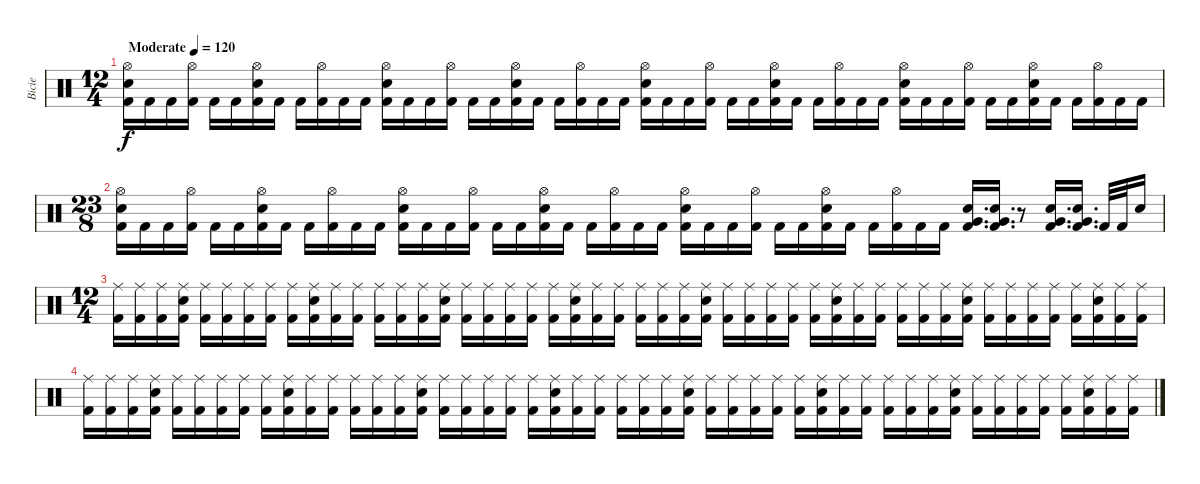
\track ("Bicie" "Bicie") {instrument percussion}
\staff {score}
\articulation defaults
\ts (12 4)
\tempo (120 "Moderate")
\clef neutral
\ks c
("Hi-Hat (open)" "Electric Snare (hit)" "Kick (hit) 2").16{dy f} "Kick (hit) 2".16 "Kick (hit) 2".16 ("Hi-Hat (open)" "Kick (hit) 2").16 "Kick (hit) 2".16 "Kick (hit) 2".16 ("Hi-Hat (open)" "Electric Snare (hit)" "Kick (hit) 2").16 "Kick (hit) 2".16 "Kick (hit) 2".16 ("Hi-Hat (open)" "Kick (hit) 2").16 "Kick (hit) 2".16 "Kick (hit) 2".16 ("Hi-Hat (open)" "Electric Snare (hit)" "Kick (hit) 2").16 "Kick (hit) 2".16 "Kick (hit) 2".16 ("Hi-Hat (open)" "Kick (hit) 2").16 "Kick (hit) 2".16 "Kick (hit) 2".16 ("Hi-Hat (open)" "Electric Snare (hit)" "Kick (hit) 2").16 "Kick (hit) 2".16 "Kick (hit) 2".16 ("Hi-Hat (open)" "Kick (hit) 2").16 "Kick (hit) 2".16 "Kick (hit) 2".16 ("Hi-Hat (open)" "Electric Snare (hit)" "Kick (hit) 2").16 "Kick (hit) 2".16 "Kick (hit) 2".16 ("Hi-Hat (open)" "Kick (hit) 2").16 "Kick (hit) 2".16 "Kick (hit) 2".16 ("Hi-Hat (open)" "Electric Snare (hit)" "Kick (hit) 2").16 "Kick (hit) 2".16 "Kick (hit) 2".16 ("Hi-Hat (open)" "Kick (hit) 2").16 "Kick (hit) 2".16 "Kick (hit) 2".16 ("Hi-Hat (open)" "Electric Snare (hit)" "Kick (hit) 2").16 "Kick (hit) 2".16 "Kick (hit) 2".16 ("Hi-Hat (open)" "Kick (hit) 2").16 "Kick (hit) 2".16 "Kick (hit) 2".16 ("Hi-Hat (open)" "Electric Snare (hit)" "Kick (hit) 2").16 "Kick (hit) 2".16 "Kick (hit) 2".16 ("Hi-Hat (open)" "Kick (hit) 2").16 "Kick (hit) 2".16 "Kick (hit) 2".16 |
\ts (23 8)
("Hi-Hat (open)" "Electric Snare (hit)" "Kick (hit) 2").16 "Kick (hit) 2".16 "Kick (hit) 2".16 ("Hi-Hat (open)" "Kick (hit) 2").16 "Kick (hit) 2".16 "Kick (hit) 2".16 ("Hi-Hat (open)" "Electric Snare (hit)" "Kick (hit) 2").16 "Kick (hit) 2".16 "Kick (hit) 2".16 ("Hi-Hat (open)" "Kick (hit) 2").16 "Kick (hit) 2".16 "Kick (hit) 2".16 ("Hi-Hat (open)" "Electric Snare (hit)" "Kick (hit) 2").16 "Kick (hit) 2".16 "Kick (hit) 2".16 ("Hi-Hat (open)" "Kick (hit) 2").16 "Kick (hit) 2".16 "Kick (hit) 2".16 ("Hi-Hat (open)" "Electric Snare (hit)" "Kick (hit) 2").16 "Kick (hit) 2".16 "Kick (hit) 2".16 ("Hi-Hat (open)" "Kick (hit) 2").16 "Kick (hit) 2".16 "Kick (hit) 2".16 ("Hi-Hat (open)" "Electric Snare (hit)" "Kick (hit) 2").16 "Kick (hit) 2".16 "Kick (hit) 2".16 ("Hi-Hat (open)" "Kick (hit) 2").16 "Kick (hit) 2".16 "Kick (hit) 2".16 ("Hi-Hat (open)" "Electric Snare (hit)" "Kick (hit) 2").16 "Kick (hit) 2".16 "Kick (hit) 2".16 ("Hi-Hat (open)" "Kick (hit) 2").16 "Kick (hit) 2".16 "Kick (hit) 2".16 ("Electric Snare (hit)" "Very Low Tom (hit)" "Kick (hit) 2").16{d} ("Electric Snare (hit)" "Very Low Tom (hit)" "Kick (hit) 2").16{d} r.8 ("Electric Snare (hit)" "Very Low Tom (hit)" "Kick (hit) 2").16{d} ("Electric Snare (hit)" "Very Low Tom (hit)" "Kick (hit) 2").16{d} "Kick (hit) 2".32 "Kick (hit) 2".32 "Electric Snare (hit)".16 |
\ts (12 4)
("Ride (middle)" "Kick (hit) 2").16 ("Ride (middle)" "Kick (hit) 2").16 ("Ride (middle)" "Kick (hit) 2").16 ("Ride (middle)" "Electric Snare (hit)" "Kick (hit) 2").16 ("Ride (middle)" "Kick (hit) 2").16 ("Ride (middle)" "Kick (hit) 2").16 ("Ride (middle)" "Kick (hit) 2").16 ("Ride (middle)" "Kick (hit) 2").16 ("Ride (middle)" "Kick (hit) 2").16 ("Ride (middle)" "Electric Snare (hit)" "Kick (hit) 2").16 ("Ride (middle)" "Kick (hit) 2").16 ("Ride (middle)" "Kick (hit) 2").16 ("Ride (middle)" "Kick (hit) 2").16 ("Ride (middle)" "Kick (hit) 2").16 ("Ride (middle)" "Kick (hit) 2").16 ("Ride (middle)" "Electric Snare (hit)" "Kick (hit) 2").16 ("Ride (middle)" "Kick (hit) 2").16 ("Ride (middle)" "Kick (hit) 2").16 ("Ride (middle)" "Kick (hit) 2").16 ("Ride (middle)" "Kick (hit) 2").16 ("Ride (middle)" "Kick (hit) 2").16 ("Ride (middle)" "Electric Snare (hit)" "Kick (hit) 2").16 ("Ride (middle)" "Kick (hit) 2").16 ("Ride (middle)" "Kick (hit) 2").16 ("Ride (middle)" "Kick (hit) 2").16 ("Ride (middle)" "Kick (hit) 2").16 ("Ride (middle)" "Kick (hit) 2").16 ("Ride (middle)" "Electric Snare (hit)" "Kick (hit) 2").16 ("Ride (middle)" "Kick (hit) 2").16 ("Ride (middle)" "Kick (hit) 2").16 ("Ride (middle)" "Kick (hit) 2").16 ("Ride (middle)" "Kick (hit) 2").16 ("Ride (middle)" "Kick (hit) 2").16 ("Ride (middle)" "Electric Snare (hit)" "Kick (hit) 2").16 ("Ride (middle)" "Kick (hit) 2").16 ("Ride (middle)" "Kick (hit) 2").16 ("Ride (middle)" "Kick (hit) 2").16 ("Ride (middle)" "Kick (hit) 2").16 ("Ride (middle)" "Kick (hit) 2").16 ("Ride (middle)" "Electric Snare (hit)" "Kick (hit) 2").16 ("Ride (middle)" "Kick (hit) 2").16 ("Ride (middle)" "Kick (hit) 2").16 ("Ride (middle)" "Kick (hit) 2").16 ("Ride (middle)" "Kick (hit) 2").16 ("Ride (middle)" "Kick (hit) 2").16 ("Ride (middle)" "Electric Snare (hit)" "Kick (hit) 2").16 ("Ride (middle)" "Kick (hit) 2").16 ("Ride (middle)" "Kick (hit) 2").16 |
("Ride (middle)" "Kick (hit) 2").16 ("Ride (middle)" "Kick (hit) 2").16 ("Ride (middle)" "Kick (hit) 2").16 ("Ride (middle)" "Electric Snare (hit)" "Kick (hit) 2").16 ("Ride (middle)" "Kick (hit) 2").16 ("Ride (middle)" "Kick (hit) 2").16 ("Ride (middle)" "Kick (hit) 2").16 ("Ride (middle)" "Kick (hit) 2").16 ("Ride (middle)" "Kick (hit) 2").16 ("Ride (middle)" "Electric Snare (hit)" "Kick (hit) 2").16 ("Ride (middle)" "Kick (hit) 2").16 ("Ride (middle)" "Kick (hit) 2").16 ("Ride (middle)" "Kick (hit) 2").16 ("Ride (middle)" "Kick (hit) 2").16 ("Ride (middle)" "Kick (hit) 2").16 ("Ride (middle)" "Electric Snare (hit)" "Kick (hit) 2").16 ("Ride (middle)" "Kick (hit) 2").16 ("Ride (middle)" "Kick (hit) 2").16 ("Ride (middle)" "Kick (hit) 2").16 ("Ride (middle)" "Kick (hit) 2").16 ("Ride (middle)" "Kick (hit) 2").16 ("Ride (middle)" "Electric Snare (hit)" "Kick (hit) 2").16 ("Ride (middle)" "Kick (hit) 2").16 ("Ride (middle)" "Kick (hit) 2").16 ("Ride (middle)" "Kick (hit) 2").16 ("Ride (middle)" "Kick (hit) 2").16 ("Ride (middle)" "Kick (hit) 2").16 ("Ride (middle)" "Electric Snare (hit)" "Kick (hit) 2").16 ("Ride (middle)" "Kick (hit) 2").16 ("Ride (middle)" "Kick (hit) 2").16 ("Ride (middle)" "Kick (hit) 2").16 ("Ride (middle)" "Kick (hit) 2").16 ("Ride (middle)" "Kick (hit) 2").16 ("Ride (middle)" "Electric Snare (hit)" "Kick (hit) 2").16 ("Ride (middle)" "Kick (hit) 2").16 ("Ride (middle)" "Kick (hit) 2").16 ("Ride (middle)" "Kick (hit) 2").16 ("Ride (middle)" "Kick (hit) 2").16 ("Ride (middle)" "Kick (hit) 2").16 ("Ride (middle)" "Electric Snare (hit)" "Kick (hit) 2").16 ("Ride (middle)" "Kick (hit) 2").16 ("Ride (middle)" "Kick (hit) 2").16 ("Ride (middle)" "Kick (hit) 2").16 ("Ride (middle)" "Kick (hit) 2").16 ("Ride (middle)" "Kick (hit) 2").16 ("Ride (middle)" "Electric Snare (hit)" "Kick (hit) 2").16 ("Ride (middle)" "Kick (hit) 2").16 ("Ride (middle)" "Kick (hit) 2").16
